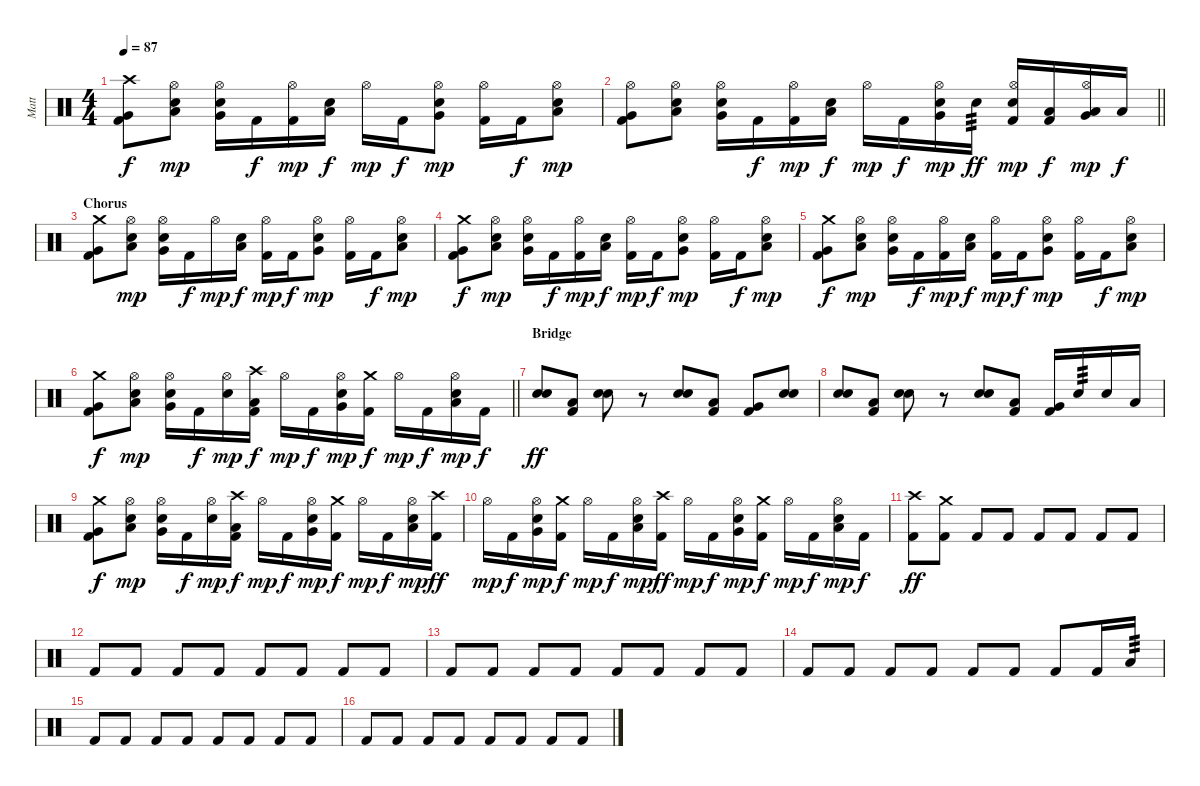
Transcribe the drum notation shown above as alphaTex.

\track ("Matt" "Matt") {instrument percussion}
\staff {score}
\articulation defaults
\ts (4 4)
\tempo 87
\clef neutral
\ks c
("Crash high (hit)" "Very Low Tom (hit)" "Kick (hit) 2").8{dy f} ("Hi-Hat (open)" "Low Tom (hit)" "Snare (hit) 2").8{dy mp} ("Hi-Hat (open)" "Very Low Tom (hit)" "Snare (hit) 2").16 "Kick (hit) 2".16{dy f} ("Hi-Hat (open)" "Kick (hit) 2").16{dy mp} ("Low Tom (hit)" "Snare (hit) 2").16{dy f} "Hi-Hat (open)".16{dy mp} "Kick (hit) 2".16{dy f} ("Hi-Hat (open)" "Very Low Tom (hit)" "Snare (hit) 2").8{dy mp} ("Hi-Hat (open)" "Kick (hit) 2").16 "Kick (hit) 2".16{dy f} ("Hi-Hat (open)" "Low Tom (hit)" "Snare (hit) 2").8{dy mp} |
\barLineRight lightlight
("Hi-Hat (open)" "Very Low Tom (hit)" "Kick (hit) 2").8 ("Hi-Hat (open)" "Low Tom (hit)" "Snare (hit) 2").8 ("Hi-Hat (open)" "Very Low Tom (hit)" "Snare (hit) 2").16 "Kick (hit) 2".16{dy f} ("Hi-Hat (open)" "Kick (hit) 2").16{dy mp} ("Low Tom (hit)" "Snare (hit) 2").16{dy f} "Hi-Hat (open)".16{dy mp} "Kick (hit) 2".16{dy f} ("Hi-Hat (open)" "Very Low Tom (hit)" "Snare (hit) 2").16{dy mp} "Snare (hit) 2".16{tp 3 dy ff} ("Hi-Hat (open)" "Snare (hit) 2" "Kick (hit) 2").16{dy mp} ("Low Tom (hit)" "Kick (hit) 2").16{dy f} ("Hi-Hat (open)" "Low Tom (hit)" "Very Low Tom (hit)").16{dy mp} "Low Floor Tom (hit)".16{dy f} |
\section ("" "Chorus")
("Crash medium (hit)" "Very Low Tom (hit)" "Kick (hit) 2").8 ("Hi-Hat (open)" "Low Tom (hit)" "Snare (hit) 2").8{dy mp} ("Hi-Hat (open)" "Very Low Tom (hit)" "Snare (hit) 2").16 "Kick (hit) 2".16{dy f} "Hi-Hat (open)".16{dy mp} ("Low Tom (hit)" "Snare (hit) 2").16{dy f} ("Hi-Hat (open)" "Kick (hit) 2").16{dy mp} "Kick (hit) 2".16{dy f} ("Hi-Hat (open)" "Very Low Tom (hit)" "Snare (hit) 2").8{dy mp} ("Hi-Hat (open)" "Kick (hit) 2").16 "Kick (hit) 2".16{dy f} ("Hi-Hat (open)" "Low Tom (hit)" "Snare (hit) 2").8{dy mp} |
("Crash medium (hit)" "Very Low Tom (hit)" "Kick (hit) 2").8{dy f} ("Hi-Hat (open)" "Low Tom (hit)" "Snare (hit) 2").8{dy mp} ("Hi-Hat (open)" "Very Low Tom (hit)" "Snare (hit) 2").16 "Kick (hit) 2".16{dy f} ("Hi-Hat (open)" "Kick (hit) 2").16{dy mp} ("Low Tom (hit)" "Snare (hit) 2").16{dy f} ("Hi-Hat (open)" "Kick (hit) 2").16{dy mp} "Kick (hit) 2".16{dy f} ("Hi-Hat (open)" "Very Low Tom (hit)" "Snare (hit) 2").8{dy mp} ("Hi-Hat (open)" "Kick (hit) 2").16 "Kick (hit) 2".16{dy f} ("Hi-Hat (open)" "Low Tom (hit)" "Snare (hit) 2").8{dy mp} |
("Crash medium (hit)" "Very Low Tom (hit)" "Kick (hit) 2").8{dy f} ("Hi-Hat (open)" "Low Tom (hit)" "Snare (hit) 2").8{dy mp} ("Hi-Hat (open)" "Very Low Tom (hit)" "Snare (hit) 2").16 "Kick (hit) 2".16{dy f} ("Hi-Hat (open)" "Kick (hit) 2").16{dy mp} ("Low Tom (hit)" "Snare (hit) 2").16{dy f} ("Hi-Hat (open)" "Kick (hit) 2").16{dy mp} "Kick (hit) 2".16{dy f} ("Hi-Hat (open)" "Very Low Tom (hit)" "Snare (hit) 2").8{dy mp} ("Hi-Hat (open)" "Kick (hit) 2").16 "Kick (hit) 2".16{dy f} ("Hi-Hat (open)" "Low Tom (hit)" "Snare (hit) 2").8{dy mp} |
\barLineRight lightlight
("Crash medium (hit)" "Very Low Tom (hit)" "Kick (hit) 2").8{dy f} ("Hi-Hat (open)" "Low Tom (hit)" "Snare (hit) 2").8{dy mp} ("Hi-Hat (open)" "Very Low Tom (hit)" "Snare (hit) 2").16 "Kick (hit) 2".16{dy f} ("Hi-Hat (open)" "Snare (hit) 2").16{dy mp} ("Crash high (hit)" "Low Tom (hit)" "Kick (hit) 2").16{dy f} "Hi-Hat (open)".16{dy mp} "Kick (hit) 2".16{dy f} ("Hi-Hat (open)" "Very Low Tom (hit)" "Snare (hit) 2").16{dy mp} ("Crash medium (hit)" "Kick (hit) 2").16{dy f} "Hi-Hat (open)".16{dy mp} "Kick (hit) 2".16{dy f} ("Hi-Hat (open)" "Low Tom (hit)" "Snare (hit) 2").16{dy mp} "Kick (hit) 2".16{dy f} |
\section ("" "Bridge")
("Snare (hit) 2" "Snare (hit) 2").8{dy ff} ("Low Tom (hit)" "Kick (hit) 2").8 ("Snare (hit) 2" "Snare (hit) 2").8 r.8 ("Snare (hit) 2" "Snare (hit) 2").8 ("Low Tom (hit)" "Kick (hit) 2").8 ("Very Low Tom (hit)" "Kick (hit) 2").8 ("Snare (hit) 2" "Snare (hit) 2").8 |
("Snare (hit) 2" "Snare (hit) 2").8 ("Low Tom (hit)" "Kick (hit) 2").8 ("Snare (hit) 2" "Snare (hit) 2").8 r.8 ("Snare (hit) 2" "Snare (hit) 2").8 ("Low Tom (hit)" "Kick (hit) 2").8 ("Very Low Tom (hit)" "Kick (hit) 2").16 "Snare (hit) 2".16{tp 3} "Snare (hit) 2".16 "Low Tom (hit)".16 |
("Crash medium (hit)" "Very Low Tom (hit)" "Kick (hit) 2").8{dy f} ("Hi-Hat (open)" "Low Tom (hit)" "Snare (hit) 2").8{dy mp} ("Hi-Hat (open)" "Very Low Tom (hit)" "Snare (hit) 2").16 "Kick (hit) 2".16{dy f} ("Hi-Hat (open)" "Snare (hit) 2").16{dy mp} ("Crash high (hit)" "Low Tom (hit)" "Kick (hit) 2").16{dy f} "Hi-Hat (open)".16{dy mp} "Kick (hit) 2".16{dy f} ("Hi-Hat (open)" "Very Low Tom (hit)" "Snare (hit) 2").16{dy mp} ("Crash medium (hit)" "Kick (hit) 2").16{dy f} "Hi-Hat (open)".16{dy mp} "Kick (hit) 2".16{dy f} ("Hi-Hat (open)" "Low Tom (hit)" "Snare (hit) 2").16{dy mp} ("Crash high (hit)" "Kick (hit) 2").16{dy ff} |
"Hi-Hat (open)".16{dy mp} "Kick (hit) 2".16{dy f} ("Hi-Hat (open)" "Very Low Tom (hit)" "Snare (hit) 2").16{dy mp} ("Crash medium (hit)" "Kick (hit) 2").16{dy f} "Hi-Hat (open)".16{dy mp} "Kick (hit) 2".16{dy f} ("Hi-Hat (open)" "Low Tom (hit)" "Snare (hit) 2").16{dy mp} ("Crash high (hit)" "Kick (hit) 2").16{dy ff} "Hi-Hat (open)".16{dy mp} "Kick (hit) 2".16{dy f} ("Hi-Hat (open)" "Very Low Tom (hit)" "Snare (hit) 2").16{dy mp} ("Crash medium (hit)" "Kick (hit) 2").16{dy f} "Hi-Hat (open)".16{dy mp} "Kick (hit) 2".16{dy f} ("Hi-Hat (open)" "Low Tom (hit)" "Snare (hit) 2").16{dy mp} "Kick (hit) 2".16{dy f} |
("Crash high (hit)" "Kick (hit) 2").8{dy ff} ("Crash medium (hit)" "Kick (hit) 2").8 "Kick (hit) 2".8 "Kick (hit) 2".8 "Kick (hit) 2".8 "Kick (hit) 2".8 "Kick (hit) 2".8 "Kick (hit) 2".8 |
"Kick (hit) 2".8 "Kick (hit) 2".8 "Kick (hit) 2".8 "Kick (hit) 2".8 "Kick (hit) 2".8 "Kick (hit) 2".8 "Kick (hit) 2".8 "Kick (hit) 2".8 |
"Kick (hit) 2".8 "Kick (hit) 2".8 "Kick (hit) 2".8 "Kick (hit) 2".8 "Kick (hit) 2".8 "Kick (hit) 2".8 "Kick (hit) 2".8 "Kick (hit) 2".8 |
"Kick (hit) 2".8 "Kick (hit) 2".8 "Kick (hit) 2".8 "Kick (hit) 2".8 "Kick (hit) 2".8 "Kick (hit) 2".8 "Kick (hit) 2".8 "Kick (hit) 2".16 "Low Tom (hit)".16{tp 3} |
"Kick (hit) 2".8 "Kick (hit) 2".8 "Kick (hit) 2".8 "Kick (hit) 2".8 "Kick (hit) 2".8 "Kick (hit) 2".8 "Kick (hit) 2".8 "Kick (hit) 2".8 |
"Kick (hit) 2".8 "Kick (hit) 2".8 "Kick (hit) 2".8 "Kick (hit) 2".8 "Kick (hit) 2".8 "Kick (hit) 2".8 "Kick (hit) 2".8 "Kick (hit) 2".8
